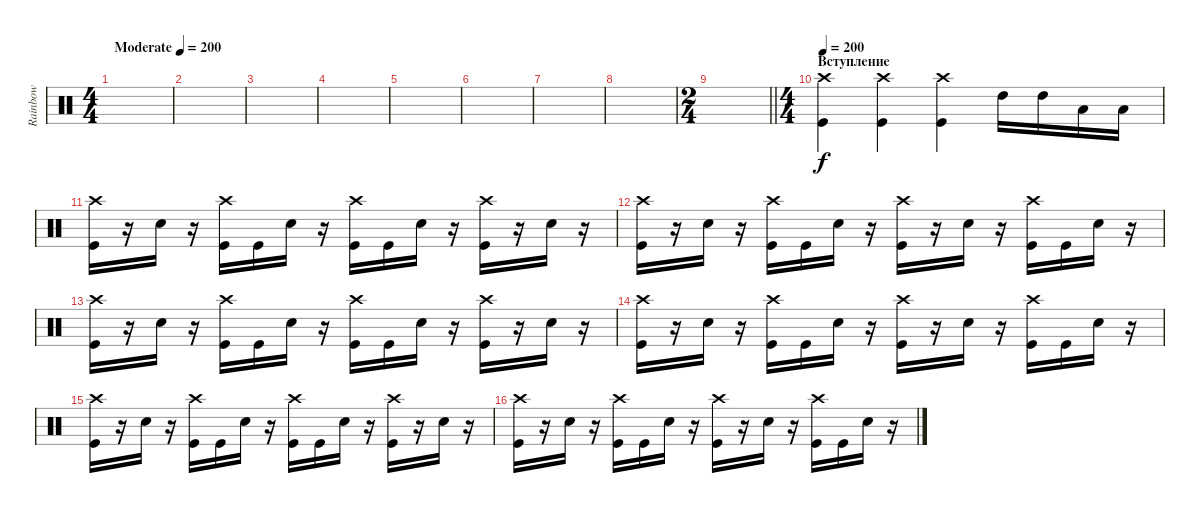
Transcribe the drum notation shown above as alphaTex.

\track ("Rainbow" "Rainbow") {instrument percussion}
\staff {score}
\articulation defaults
\ts (4 4)
\tempo (200 "Moderate")
\tempo 150
\tempo (200 "Moderate")
\clef neutral
\ks c
|
|
|
|
|
|
|
|
\ts (2 4)
\barLineRight lightlight
|
\ts (4 4)
\section ("" "Вступление")
\tempo 200
("Crash high (hit)" "Kick (hit)").4 ("Crash high (hit)" "Kick (hit)").4 ("Crash high (hit)" "Kick (hit)").4 "High Tom (hit)".16 "High Tom (hit)".16 "Low Tom (hit)".16 "Low Tom (hit)".16 |
("Crash high (hit)" "Kick (hit)").16 r.16 "Electric Snare (hit)".16 r.16 ("Crash high (hit)" "Kick (hit)").16 "Kick (hit)".16 "Electric Snare (hit)".16 r.16 ("Crash high (hit)" "Kick (hit)").16 "Kick (hit)".16 "Electric Snare (hit)".16 r.16 ("Crash high (hit)" "Kick (hit)").16 r.16 "Electric Snare (hit)".16 r.16 |
("Crash high (hit)" "Kick (hit)").16 r.16 "Electric Snare (hit)".16 r.16 ("Crash high (hit)" "Kick (hit)").16 "Kick (hit)".16 "Electric Snare (hit)".16 r.16 ("Crash high (hit)" "Kick (hit)").16 r.16 "Electric Snare (hit)".16 r.16 ("Crash high (hit)" "Kick (hit)").16 "Kick (hit)".16 "Electric Snare (hit)".16 r.16 |
("Crash high (hit)" "Kick (hit)").16 r.16 "Electric Snare (hit)".16 r.16 ("Crash high (hit)" "Kick (hit)").16 "Kick (hit)".16 "Electric Snare (hit)".16 r.16 ("Crash high (hit)" "Kick (hit)").16 "Kick (hit)".16 "Electric Snare (hit)".16 r.16 ("Crash high (hit)" "Kick (hit)").16 r.16 "Electric Snare (hit)".16 r.16 |
("Crash high (hit)" "Kick (hit)").16 r.16 "Electric Snare (hit)".16 r.16 ("Crash high (hit)" "Kick (hit)").16 "Kick (hit)".16 "Electric Snare (hit)".16 r.16 ("Crash high (hit)" "Kick (hit)").16 r.16 "Electric Snare (hit)".16 r.16 ("Crash high (hit)" "Kick (hit)").16 "Kick (hit)".16 "Electric Snare (hit)".16 r.16 |
("Crash high (hit)" "Kick (hit)").16 r.16 "Electric Snare (hit)".16 r.16 ("Crash high (hit)" "Kick (hit)").16 "Kick (hit)".16 "Electric Snare (hit)".16 r.16 ("Crash high (hit)" "Kick (hit)").16 "Kick (hit)".16 "Electric Snare (hit)".16 r.16 ("Crash high (hit)" "Kick (hit)").16 r.16 "Electric Snare (hit)".16 r.16 |
("Crash high (hit)" "Kick (hit)").16 r.16 "Electric Snare (hit)".16 r.16 ("Crash high (hit)" "Kick (hit)").16 "Kick (hit)".16 "Electric Snare (hit)".16 r.16 ("Crash high (hit)" "Kick (hit)").16 r.16 "Electric Snare (hit)".16 r.16 ("Crash high (hit)" "Kick (hit)").16 "Kick (hit)".16 "Electric Snare (hit)".16 r.16
